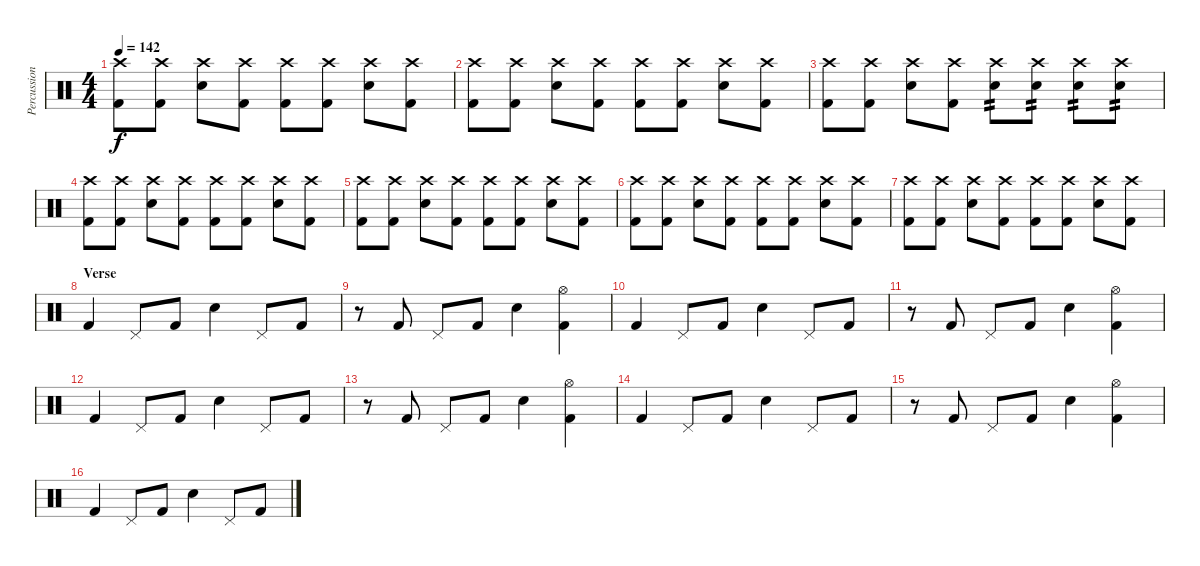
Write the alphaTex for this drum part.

\track ("Percussion" "Percussion") {instrument percussion}
\staff {score}
\articulation defaults
\ts (4 4)
\tempo 142
\clef neutral
\ks c
("Crash high (hit)" "Kick (hit) 2").8{dy f} ("Crash high (hit)" "Kick (hit) 2").8 ("Crash high (hit)" "Snare (hit) 2").8 ("Crash high (hit)" "Kick (hit) 2").8 ("Crash high (hit)" "Kick (hit) 2").8 ("Crash high (hit)" "Kick (hit) 2").8 ("Crash high (hit)" "Snare (hit) 2").8 ("Crash high (hit)" "Kick (hit) 2").8 |
("Crash high (hit)" "Kick (hit) 2").8 ("Crash high (hit)" "Kick (hit) 2").8 ("Crash high (hit)" "Snare (hit) 2").8 ("Crash high (hit)" "Kick (hit) 2").8 ("Crash high (hit)" "Kick (hit) 2").8 ("Crash high (hit)" "Kick (hit) 2").8 ("Crash high (hit)" "Snare (hit) 2").8 ("Crash high (hit)" "Kick (hit) 2").8 |
("Crash high (hit)" "Kick (hit) 2").8 ("Crash high (hit)" "Kick (hit) 2").8 ("Crash high (hit)" "Snare (hit) 2").8 ("Crash high (hit)" "Kick (hit) 2").8 ("Crash high (hit)" "Snare (hit) 2").8{tp 2} ("Crash high (hit)" "Snare (hit) 2").8{tp 2} ("Crash high (hit)" "Snare (hit) 2").8{tp 2} ("Crash high (hit)" "Snare (hit) 2").8{tp 2} |
("Crash high (hit)" "Kick (hit) 2").8 ("Crash high (hit)" "Kick (hit) 2").8 ("Crash high (hit)" "Snare (hit) 2").8 ("Crash high (hit)" "Kick (hit) 2").8 ("Crash high (hit)" "Kick (hit) 2").8 ("Crash high (hit)" "Kick (hit) 2").8 ("Crash high (hit)" "Snare (hit) 2").8 ("Crash high (hit)" "Kick (hit) 2").8 |
("Crash high (hit)" "Kick (hit) 2").8 ("Crash high (hit)" "Kick (hit) 2").8 ("Crash high (hit)" "Snare (hit) 2").8 ("Crash high (hit)" "Kick (hit) 2").8 ("Crash high (hit)" "Kick (hit) 2").8 ("Crash high (hit)" "Kick (hit) 2").8 ("Crash high (hit)" "Snare (hit) 2").8 ("Crash high (hit)" "Kick (hit) 2").8 |
("Crash high (hit)" "Kick (hit) 2").8 ("Crash high (hit)" "Kick (hit) 2").8 ("Crash high (hit)" "Snare (hit) 2").8 ("Crash high (hit)" "Kick (hit) 2").8 ("Crash high (hit)" "Kick (hit) 2").8 ("Crash high (hit)" "Kick (hit) 2").8 ("Crash high (hit)" "Snare (hit) 2").8 ("Crash high (hit)" "Kick (hit) 2").8 |
("Crash high (hit)" "Kick (hit) 2").8 ("Crash high (hit)" "Kick (hit) 2").8 ("Crash high (hit)" "Snare (hit) 2").8 ("Crash high (hit)" "Kick (hit) 2").8 ("Crash high (hit)" "Kick (hit) 2").8 ("Crash high (hit)" "Kick (hit) 2").8 ("Crash high (hit)" "Snare (hit) 2").8 ("Crash high (hit)" "Kick (hit) 2").8 |
\section ("" "Verse")
"Kick (hit) 2".4 "Pedal Hi-Hat (hit)".8 "Kick (hit) 2".8 "Snare (hit) 2".4 "Pedal Hi-Hat (hit)".8 "Kick (hit) 2".8 |
r.8 "Kick (hit) 2".8 "Pedal Hi-Hat (hit)".8 "Kick (hit) 2".8 "Snare (hit) 2".4 ("Hi-Hat (open)" "Kick (hit) 2").4 |
"Kick (hit) 2".4 "Pedal Hi-Hat (hit)".8 "Kick (hit) 2".8 "Snare (hit) 2".4 "Pedal Hi-Hat (hit)".8 "Kick (hit) 2".8 |
r.8 "Kick (hit) 2".8 "Pedal Hi-Hat (hit)".8 "Kick (hit) 2".8 "Snare (hit) 2".4 ("Hi-Hat (open)" "Kick (hit) 2").4 |
"Kick (hit) 2".4 "Pedal Hi-Hat (hit)".8 "Kick (hit) 2".8 "Snare (hit) 2".4 "Pedal Hi-Hat (hit)".8 "Kick (hit) 2".8 |
r.8 "Kick (hit) 2".8 "Pedal Hi-Hat (hit)".8 "Kick (hit) 2".8 "Snare (hit) 2".4 ("Hi-Hat (open)" "Kick (hit) 2").4 |
"Kick (hit) 2".4 "Pedal Hi-Hat (hit)".8 "Kick (hit) 2".8 "Snare (hit) 2".4 "Pedal Hi-Hat (hit)".8 "Kick (hit) 2".8 |
r.8 "Kick (hit) 2".8 "Pedal Hi-Hat (hit)".8 "Kick (hit) 2".8 "Snare (hit) 2".4 ("Hi-Hat (open)" "Kick (hit) 2").4 |
"Kick (hit) 2".4 "Pedal Hi-Hat (hit)".8 "Kick (hit) 2".8 "Snare (hit) 2".4 "Pedal Hi-Hat (hit)".8 "Kick (hit) 2".8
